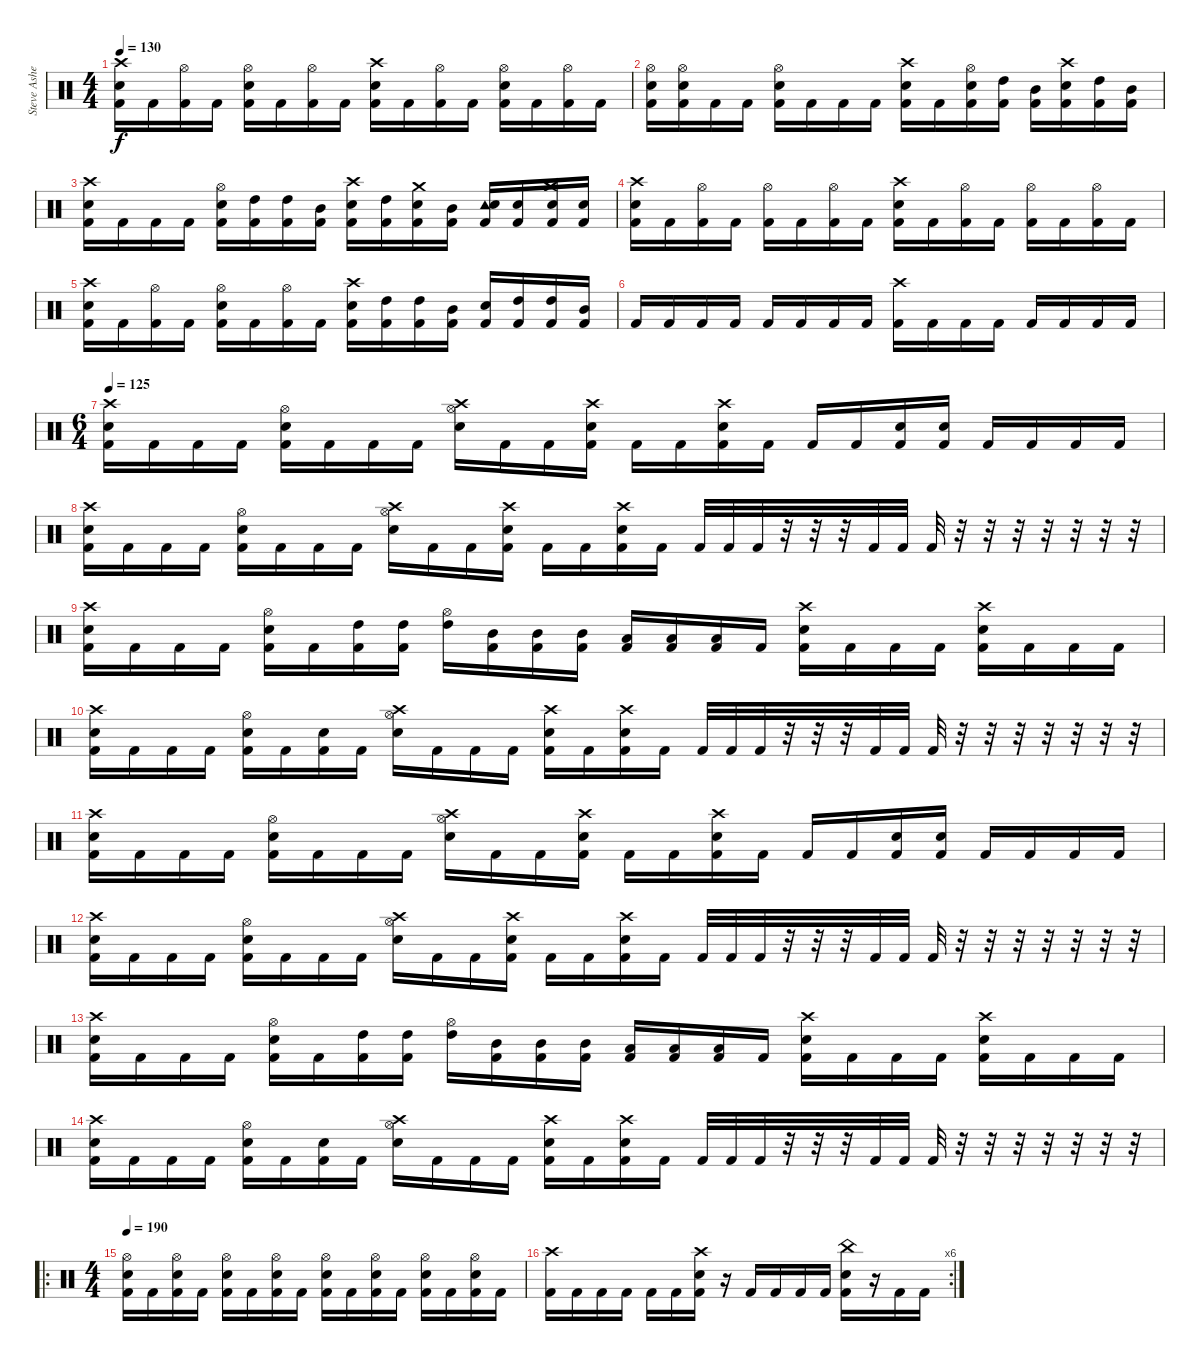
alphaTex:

\track ("Steve Asheim" "Steve Ashe") {instrument percussion}
\staff {score}
\articulation defaults
\ts (4 4)
\tempo 130
\clef neutral
\ks c
("Crash high (hit)" "Electric Snare (hit)" "Kick (hit) 2").16{dy f} "Kick (hit) 2".16 ("Hi-Hat (open)" "Kick (hit) 2").16 "Kick (hit) 2".16 ("Hi-Hat (open)" "Electric Snare (hit)" "Kick (hit) 2").16 "Kick (hit) 2".16 ("Hi-Hat (open)" "Kick (hit) 2").16 "Kick (hit) 2".16 ("Crash high (hit)" "Electric Snare (hit)" "Kick (hit) 2").16 "Kick (hit) 2".16 ("Hi-Hat (open)" "Kick (hit) 2").16 "Kick (hit) 2".16 ("Hi-Hat (open)" "Electric Snare (hit)" "Kick (hit) 2").16 "Kick (hit) 2".16 ("Hi-Hat (open)" "Kick (hit) 2").16 "Kick (hit) 2".16 |
("Hi-Hat (open)" "Electric Snare (hit)" "Kick (hit) 2").16 ("Hi-Hat (open)" "Electric Snare (hit)" "Kick (hit) 2").16 "Kick (hit) 2".16 "Kick (hit) 2".16 ("Hi-Hat (open)" "Electric Snare (hit)" "Kick (hit) 2").16 "Kick (hit) 2".16 "Kick (hit) 2".16 "Kick (hit) 2".16 ("Crash high (hit)" "Electric Snare (hit)" "Kick (hit) 2").16 "Kick (hit) 2".16 ("Hi-Hat (open)" "Electric Snare (hit)" "Kick (hit) 2").16 ("High Tom (hit)" "Kick (hit) 2").16 ("Mid Tom (hit)" "Kick (hit) 2").16 ("Crash high (hit)" "Electric Snare (hit)" "Kick (hit) 2").16 ("High Tom (hit)" "Kick (hit) 2").16 ("Mid Tom (hit)" "Kick (hit) 2").16 |
("Crash high (hit)" "Electric Snare (hit)" "Kick (hit) 2").16 "Kick (hit) 2".16 "Kick (hit) 2".16 "Kick (hit) 2".16 ("Hi-Hat (open)" "Electric Snare (hit)" "Kick (hit) 2").16 ("High Tom (hit)" "Kick (hit) 2").16 ("High Tom (hit)" "Kick (hit) 2").16 ("Mid Tom (hit)" "Kick (hit) 2").16 ("Crash high (hit)" "Electric Snare (hit)" "Kick (hit) 2").16 ("High Tom (hit)" "Kick (hit) 2").16 ("Crash medium (hit)" "Electric Snare (hit)" "Kick (hit) 2").16 ("Mid Tom (hit)" "Kick (hit) 2").16 ("Tambourine (hit)" "Electric Snare (hit)" "Kick (hit) 2").16 ("Snare (hit) 2" "Kick (hit) 2").16 ("Crash medium (hit)" "Snare (hit) 2" "Kick (hit) 2").16 ("Snare (hit) 2" "Kick (hit) 2").16 |
("Crash high (hit)" "Electric Snare (hit)" "Kick (hit) 2").16 "Kick (hit) 2".16 ("Hi-Hat (open)" "Kick (hit) 2").16 "Kick (hit) 2".16 ("Hi-Hat (open)" "Kick (hit) 2").16 "Kick (hit) 2".16 ("Hi-Hat (open)" "Kick (hit) 2").16 "Kick (hit) 2".16 ("Crash high (hit)" "Electric Snare (hit)" "Kick (hit) 2").16 "Kick (hit) 2".16 ("Hi-Hat (open)" "Kick (hit) 2").16 "Kick (hit) 2".16 ("Hi-Hat (open)" "Kick (hit) 2").16 "Kick (hit) 2".16 ("Hi-Hat (open)" "Kick (hit) 2").16 "Kick (hit) 2".16 |
("Crash high (hit)" "Electric Snare (hit)" "Kick (hit) 2").16 "Kick (hit) 2".16 ("Hi-Hat (open)" "Kick (hit) 2").16 "Kick (hit) 2".16 ("Hi-Hat (open)" "Electric Snare (hit)" "Kick (hit) 2").16 "Kick (hit) 2".16 ("Hi-Hat (open)" "Kick (hit) 2").16 "Kick (hit) 2".16 ("Crash high (hit)" "Electric Snare (hit)" "Kick (hit) 2").16 ("High Tom (hit)" "Kick (hit) 2").16 ("High Tom (hit)" "Kick (hit) 2").16 ("Mid Tom (hit)" "Kick (hit) 2").16 ("Electric Snare (hit)" "Kick (hit) 2").16 ("High Tom (hit)" "Kick (hit) 2").16 ("High Tom (hit)" "Kick (hit) 2").16 ("Mid Tom (hit)" "Kick (hit) 2").16 |
"Kick (hit) 2".16 "Kick (hit) 2".16 "Kick (hit) 2".16 "Kick (hit) 2".16 "Kick (hit) 2".16 "Kick (hit) 2".16 "Kick (hit) 2".16 "Kick (hit) 2".16 ("Crash high (hit)" "Kick (hit) 2").16 "Kick (hit) 2".16 "Kick (hit) 2".16 "Kick (hit) 2".16 "Kick (hit) 2".16 "Kick (hit) 2".16 "Kick (hit) 2".16 "Kick (hit) 2".16 |
\ts (6 4)
\tempo 125
("Crash high (hit)" "Electric Snare (hit)" "Kick (hit) 2").16 "Kick (hit) 2".16 "Kick (hit) 2".16 "Kick (hit) 2".16 ("Hi-Hat (open)" "Electric Snare (hit)" "Kick (hit) 2").16 "Kick (hit) 2".16 "Kick (hit) 2".16 "Kick (hit) 2".16 ("Crash high (hit)" "Electric Snare (hit)" "Hi-Hat (open)").16 "Kick (hit) 2".16 "Kick (hit) 2".16 ("Crash high (hit)" "Electric Snare (hit)" "Kick (hit) 2").16 "Kick (hit) 2".16 "Kick (hit) 2".16 ("Crash high (hit)" "Electric Snare (hit)" "Kick (hit) 2").16 "Kick (hit) 2".16 "Kick (hit) 2".16 "Kick (hit) 2".16 ("Electric Snare (hit)" "Kick (hit) 2").16 ("Electric Snare (hit)" "Kick (hit) 2").16 "Kick (hit) 2".16 "Kick (hit) 2".16 "Kick (hit) 2".16 "Kick (hit) 2".16 |
("Crash high (hit)" "Electric Snare (hit)" "Kick (hit) 2").16 "Kick (hit) 2".16 "Kick (hit) 2".16 "Kick (hit) 2".16 ("Hi-Hat (open)" "Electric Snare (hit)" "Kick (hit) 2").16 "Kick (hit) 2".16 "Kick (hit) 2".16 "Kick (hit) 2".16 ("Crash high (hit)" "Electric Snare (hit)" "Hi-Hat (open)").16 "Kick (hit) 2".16 "Kick (hit) 2".16 ("Crash high (hit)" "Electric Snare (hit)" "Kick (hit) 2").16 "Kick (hit) 2".16 "Kick (hit) 2".16 ("Crash high (hit)" "Electric Snare (hit)" "Kick (hit) 2").16 "Kick (hit) 2".16 "Kick (hit) 2".32 "Kick (hit) 2".32 "Kick (hit) 2".32 r.32 r.32 r.32 "Kick (hit) 2".32 "Kick (hit) 2".32 "Kick (hit) 2".32 r.32 r.32 r.32 r.32 r.32 r.32 r.32 |
("Crash high (hit)" "Electric Snare (hit)" "Kick (hit) 2").16 "Kick (hit) 2".16 "Kick (hit) 2".16 "Kick (hit) 2".16 ("Hi-Hat (open)" "Electric Snare (hit)" "Kick (hit) 2").16 "Kick (hit) 2".16 ("High Tom (hit)" "Kick (hit) 2").16 ("High Tom (hit)" "Kick (hit) 2").16 ("High Tom (hit)" "Hi-Hat (open)").16 ("Mid Tom (hit)" "Kick (hit) 2").16 ("Mid Tom (hit)" "Kick (hit) 2").16 ("Mid Tom (hit)" "Kick (hit) 2").16 ("Low Tom (hit)" "Kick (hit) 2").16 ("Low Tom (hit)" "Kick (hit) 2").16 ("Low Tom (hit)" "Kick (hit) 2").16 "Kick (hit) 2".16 ("Crash high (hit)" "Electric Snare (hit)" "Kick (hit) 2").16 "Kick (hit) 2".16 "Kick (hit) 2".16 "Kick (hit) 2".16 ("Crash high (hit)" "Electric Snare (hit)" "Kick (hit) 2").16 "Kick (hit) 2".16 "Kick (hit) 2".16 "Kick (hit) 2".16 |
("Crash high (hit)" "Electric Snare (hit)" "Kick (hit) 2").16 "Kick (hit) 2".16 "Kick (hit) 2".16 "Kick (hit) 2".16 ("Hi-Hat (open)" "Electric Snare (hit)" "Kick (hit) 2").16 "Kick (hit) 2".16 ("Electric Snare (hit)" "Kick (hit) 2").16 "Kick (hit) 2".16 ("Crash high (hit)" "Electric Snare (hit)" "Hi-Hat (open)").16 "Kick (hit) 2".16 "Kick (hit) 2".16 "Kick (hit) 2".16 ("Crash high (hit)" "Electric Snare (hit)" "Kick (hit) 2").16 "Kick (hit) 2".16 ("Crash high (hit)" "Electric Snare (hit)" "Kick (hit) 2").16 "Kick (hit) 2".16 "Kick (hit) 2".32 "Kick (hit) 2".32 "Kick (hit) 2".32 r.32 r.32 r.32 "Kick (hit) 2".32 "Kick (hit) 2".32 "Kick (hit) 2".32 r.32 r.32 r.32 r.32 r.32 r.32 r.32 |
("Crash high (hit)" "Electric Snare (hit)" "Kick (hit) 2").16 "Kick (hit) 2".16 "Kick (hit) 2".16 "Kick (hit) 2".16 ("Hi-Hat (open)" "Electric Snare (hit)" "Kick (hit) 2").16 "Kick (hit) 2".16 "Kick (hit) 2".16 "Kick (hit) 2".16 ("Crash high (hit)" "Electric Snare (hit)" "Hi-Hat (open)").16 "Kick (hit) 2".16 "Kick (hit) 2".16 ("Crash high (hit)" "Electric Snare (hit)" "Kick (hit) 2").16 "Kick (hit) 2".16 "Kick (hit) 2".16 ("Crash high (hit)" "Electric Snare (hit)" "Kick (hit) 2").16 "Kick (hit) 2".16 "Kick (hit) 2".16 "Kick (hit) 2".16 ("Electric Snare (hit)" "Kick (hit) 2").16 ("Electric Snare (hit)" "Kick (hit) 2").16 "Kick (hit) 2".16 "Kick (hit) 2".16 "Kick (hit) 2".16 "Kick (hit) 2".16 |
("Crash high (hit)" "Electric Snare (hit)" "Kick (hit) 2").16 "Kick (hit) 2".16 "Kick (hit) 2".16 "Kick (hit) 2".16 ("Hi-Hat (open)" "Electric Snare (hit)" "Kick (hit) 2").16 "Kick (hit) 2".16 "Kick (hit) 2".16 "Kick (hit) 2".16 ("Crash high (hit)" "Electric Snare (hit)" "Hi-Hat (open)").16 "Kick (hit) 2".16 "Kick (hit) 2".16 ("Crash high (hit)" "Electric Snare (hit)" "Kick (hit) 2").16 "Kick (hit) 2".16 "Kick (hit) 2".16 ("Crash high (hit)" "Electric Snare (hit)" "Kick (hit) 2").16 "Kick (hit) 2".16 "Kick (hit) 2".32 "Kick (hit) 2".32 "Kick (hit) 2".32 r.32 r.32 r.32 "Kick (hit) 2".32 "Kick (hit) 2".32 "Kick (hit) 2".32 r.32 r.32 r.32 r.32 r.32 r.32 r.32 |
("Crash high (hit)" "Electric Snare (hit)" "Kick (hit) 2").16 "Kick (hit) 2".16 "Kick (hit) 2".16 "Kick (hit) 2".16 ("Hi-Hat (open)" "Electric Snare (hit)" "Kick (hit) 2").16 "Kick (hit) 2".16 ("High Tom (hit)" "Kick (hit) 2").16 ("High Tom (hit)" "Kick (hit) 2").16 ("High Tom (hit)" "Hi-Hat (open)").16 ("Mid Tom (hit)" "Kick (hit) 2").16 ("Mid Tom (hit)" "Kick (hit) 2").16 ("Mid Tom (hit)" "Kick (hit) 2").16 ("Low Tom (hit)" "Kick (hit) 2").16 ("Low Tom (hit)" "Kick (hit) 2").16 ("Low Tom (hit)" "Kick (hit) 2").16 "Kick (hit) 2".16 ("Crash high (hit)" "Electric Snare (hit)" "Kick (hit) 2").16 "Kick (hit) 2".16 "Kick (hit) 2".16 "Kick (hit) 2".16 ("Crash high (hit)" "Electric Snare (hit)" "Kick (hit) 2").16 "Kick (hit) 2".16 "Kick (hit) 2".16 "Kick (hit) 2".16 |
("Crash high (hit)" "Electric Snare (hit)" "Kick (hit) 2").16 "Kick (hit) 2".16 "Kick (hit) 2".16 "Kick (hit) 2".16 ("Hi-Hat (open)" "Electric Snare (hit)" "Kick (hit) 2").16 "Kick (hit) 2".16 ("Electric Snare (hit)" "Kick (hit) 2").16 "Kick (hit) 2".16 ("Crash high (hit)" "Electric Snare (hit)" "Hi-Hat (open)").16 "Kick (hit) 2".16 "Kick (hit) 2".16 "Kick (hit) 2".16 ("Crash high (hit)" "Electric Snare (hit)" "Kick (hit) 2").16 "Kick (hit) 2".16 ("Crash high (hit)" "Electric Snare (hit)" "Kick (hit) 2").16 "Kick (hit) 2".16 "Kick (hit) 2".32 "Kick (hit) 2".32 "Kick (hit) 2".32 r.32 r.32 r.32 "Kick (hit) 2".32 "Kick (hit) 2".32 "Kick (hit) 2".32 r.32 r.32 r.32 r.32 r.32 r.32 r.32 |
\ro
\ts (4 4)
\tempo 190
("Hi-Hat (open)" "Electric Snare (hit)" "Kick (hit) 2").16 "Kick (hit) 2".16 ("Hi-Hat (open)" "Electric Snare (hit)" "Kick (hit) 2").16 "Kick (hit) 2".16 ("Hi-Hat (open)" "Electric Snare (hit)" "Kick (hit) 2").16 "Kick (hit) 2".16 ("Hi-Hat (open)" "Electric Snare (hit)" "Kick (hit) 2").16 "Kick (hit) 2".16 ("Hi-Hat (open)" "Electric Snare (hit)" "Kick (hit) 2").16 "Kick (hit) 2".16 ("Hi-Hat (open)" "Electric Snare (hit)" "Kick (hit) 2").16 "Kick (hit) 2".16 ("Hi-Hat (open)" "Electric Snare (hit)" "Kick (hit) 2").16 "Kick (hit) 2".16 ("Hi-Hat (open)" "Electric Snare (hit)" "Kick (hit) 2").16 "Kick (hit) 2".16 |
\rc 6
("Crash high (hit)" "Kick (hit) 2").16 "Kick (hit) 2".16 "Kick (hit) 2".16 "Kick (hit) 2".16 "Kick (hit) 2".16 "Kick (hit) 2".16 ("Crash high (hit)" "Electric Snare (hit)" "Kick (hit) 2").16 r.16 "Kick (hit) 2".16 "Kick (hit) 2".16 "Kick (hit) 2".16 "Kick (hit) 2".16 ("China (hit)" "Electric Snare (hit)" "Kick (hit) 2").16 r.16 "Kick (hit) 2".16 "Kick (hit) 2".16
